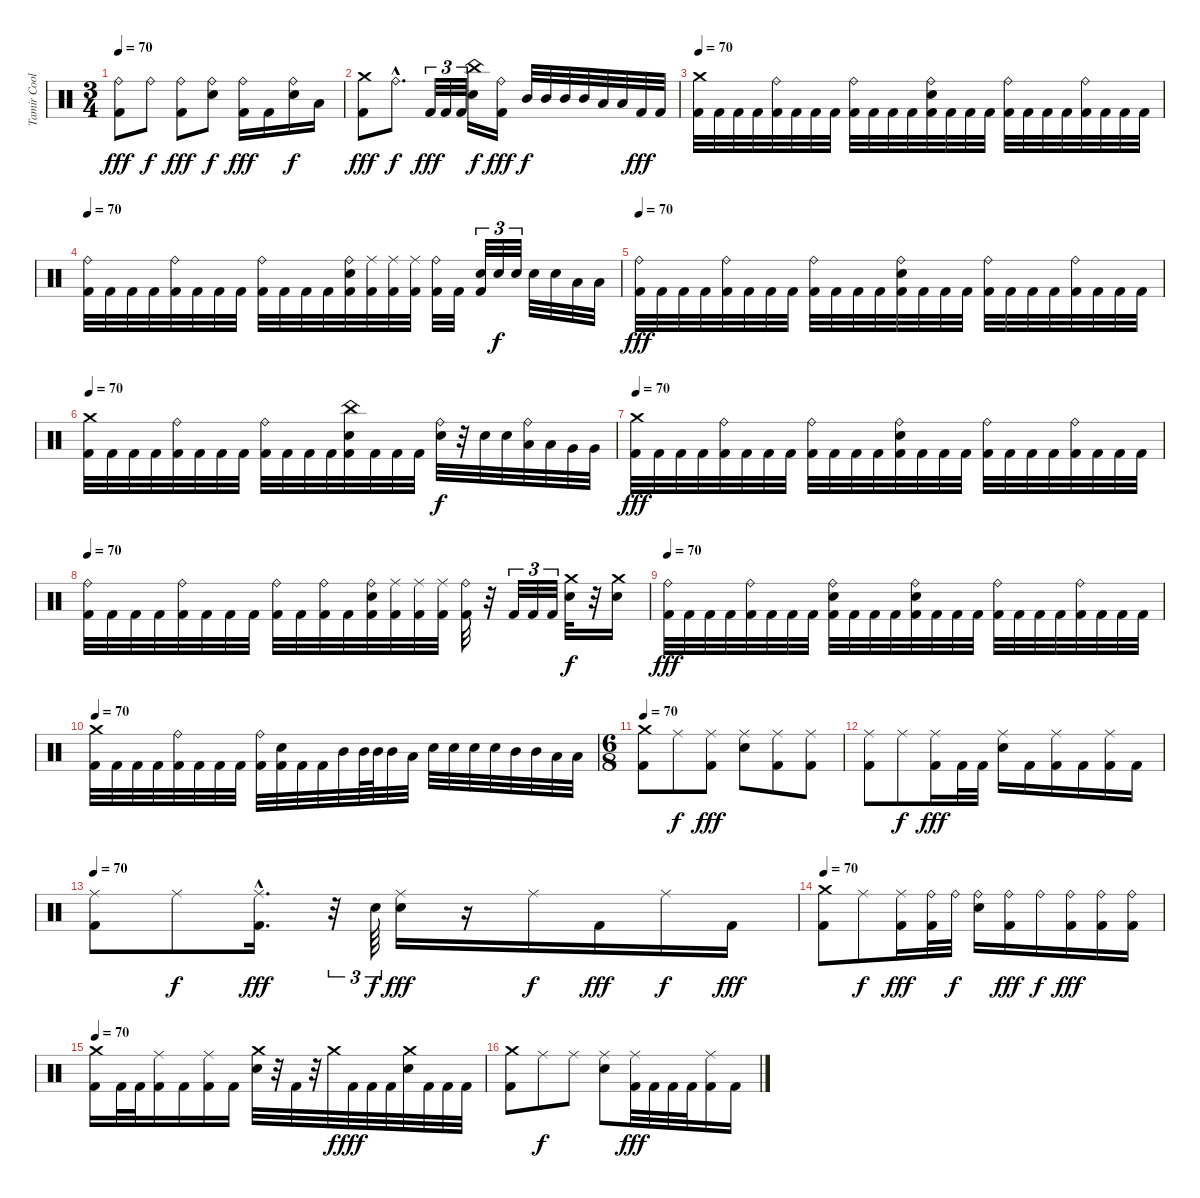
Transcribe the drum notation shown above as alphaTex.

\track ("Tamir Coolberg" "Tamir Cool") {instrument percussion}
\staff {score}
\articulation defaults
\ts (3 4)
\tempo 70
\clef neutral
\ks c
("Ride (bell)" "Kick (hit) 2").8{dy fff} "Ride (bell)".8{dy f} ("Ride (bell)" "Kick (hit) 2").8{dy fff} ("Ride (bell)" "Electric Snare (hit)").8{dy f} ("Ride (bell)" "Kick (hit) 2").16{dy fff} "Kick (hit) 2".16 ("Ride (bell)" "Electric Snare (hit)").16{dy f} "Low Tom (hit)".16 |
("Crash medium (hit)" "Kick (hit) 2").8{dy fff} "Ride (bell)"{hac}.8{d dy f} "Kick (hit) 2".32{tu (3 2) dy fff} "Kick (hit) 2".32{tu (3 2)} "Kick (hit) 2".32{tu (3 2)} ("China (hit)" "Electric Snare (hit)").16{dy f} ("Ride (bell)" "Kick (hit) 2").16{dy fff} "Mid Tom (hit)".32{dy f} "Mid Tom (hit)".32 "Mid Tom (hit)".32 "Mid Tom (hit)".32 "Low Tom (hit)".32 "Low Tom (hit)".32 "Kick (hit) 2".32{dy fff} "Kick (hit) 2".32 |
\tempo 70
("Crash medium (hit)" "Kick (hit) 2").32 "Kick (hit) 2".32 "Kick (hit) 2".32 "Kick (hit) 2".32 ("Ride (bell)" "Kick (hit) 2").32 "Kick (hit) 2".32 "Kick (hit) 2".32 "Kick (hit) 2".32 ("Ride (bell)" "Kick (hit) 2").32 "Kick (hit) 2".32 "Kick (hit) 2".32 "Kick (hit) 2".32 ("Ride (bell)" "Snare (hit) 2" "Kick (hit) 2").32 "Kick (hit) 2".32 "Kick (hit) 2".32 "Kick (hit) 2".32 ("Ride (bell)" "Kick (hit) 2").32 "Kick (hit) 2".32 "Kick (hit) 2".32 "Kick (hit) 2".32 ("Ride (bell)" "Kick (hit) 2").32 "Kick (hit) 2".32 "Kick (hit) 2".32 "Kick (hit) 2".32 |
\tempo 70
("Ride (bell)" "Kick (hit) 2").32 "Kick (hit) 2".32 "Kick (hit) 2".32 "Kick (hit) 2".32 ("Ride (bell)" "Kick (hit) 2").32 "Kick (hit) 2".32 "Kick (hit) 2".32 "Kick (hit) 2".32 ("Ride (bell)" "Kick (hit) 2").32 "Kick (hit) 2".32 "Kick (hit) 2".32 "Kick (hit) 2".32 ("Ride (bell)" "Snare (hit) 2" "Kick (hit) 2").32 ("Ride (middle)" "Kick (hit) 2").32 ("Ride (middle)" "Kick (hit) 2").32 ("Ride (middle)" "Kick (hit) 2").32 ("Ride (bell)" "Kick (hit) 2").32 "Kick (hit) 2".32 ("Snare (hit) 2" "Kick (hit) 2").32{tu (3 2)} "Snare (hit) 2".32{tu (3 2) dy f} "Snare (hit) 2".32{tu (3 2)} "Snare (hit) 2".32 "Snare (hit) 2".32 "Low Tom (hit)".32 "Low Tom (hit)".32 |
\tempo 70
("Ride (bell)" "Kick (hit) 2").32{dy fff} "Kick (hit) 2".32 "Kick (hit) 2".32 "Kick (hit) 2".32 ("Ride (bell)" "Kick (hit) 2").32 "Kick (hit) 2".32 "Kick (hit) 2".32 "Kick (hit) 2".32 ("Ride (bell)" "Kick (hit) 2").32 "Kick (hit) 2".32 "Kick (hit) 2".32 "Kick (hit) 2".32 ("Ride (bell)" "Snare (hit) 2" "Kick (hit) 2").32 "Kick (hit) 2".32 "Kick (hit) 2".32 "Kick (hit) 2".32 ("Ride (bell)" "Kick (hit) 2").32 "Kick (hit) 2".32 "Kick (hit) 2".32 "Kick (hit) 2".32 ("Ride (bell)" "Kick (hit) 2").32 "Kick (hit) 2".32 "Kick (hit) 2".32 "Kick (hit) 2".32 |
\tempo 70
("Crash medium (hit)" "Kick (hit) 2").32 "Kick (hit) 2".32 "Kick (hit) 2".32 "Kick (hit) 2".32 ("Ride (bell)" "Kick (hit) 2").32 "Kick (hit) 2".32 "Kick (hit) 2".32 "Kick (hit) 2".32 ("Ride (bell)" "Kick (hit) 2").32 "Kick (hit) 2".32 "Kick (hit) 2".32 "Kick (hit) 2".32 ("China (hit)" "Snare (hit) 2" "Kick (hit) 2").32 "Kick (hit) 2".32 "Kick (hit) 2".32 "Kick (hit) 2".32 ("Ride (bell)" "Snare (hit) 2").32{dy f} r.32 "Snare (hit) 2".32 "Snare (hit) 2".32 ("Ride (bell)" "Low Tom (hit)").32 "Low Tom (hit)".32 "Very Low Tom (hit)".32 "Very Low Tom (hit)".32 |
\tempo 70
("Crash medium (hit)" "Kick (hit) 2").32{dy fff} "Kick (hit) 2".32 "Kick (hit) 2".32 "Kick (hit) 2".32 ("Ride (bell)" "Kick (hit) 2").32 "Kick (hit) 2".32 "Kick (hit) 2".32 "Kick (hit) 2".32 ("Ride (bell)" "Kick (hit) 2").32 "Kick (hit) 2".32 "Kick (hit) 2".32 "Kick (hit) 2".32 ("Ride (bell)" "Snare (hit) 2" "Kick (hit) 2").32 "Kick (hit) 2".32 "Kick (hit) 2".32 "Kick (hit) 2".32 ("Ride (bell)" "Kick (hit) 2").32 "Kick (hit) 2".32 "Kick (hit) 2".32 "Kick (hit) 2".32 ("Ride (bell)" "Kick (hit) 2").32 "Kick (hit) 2".32 "Kick (hit) 2".32 "Kick (hit) 2".32 |
\tempo 70
("Ride (bell)" "Kick (hit) 2").32 "Kick (hit) 2".32 "Kick (hit) 2".32 "Kick (hit) 2".32 ("Ride (bell)" "Kick (hit) 2").32 "Kick (hit) 2".32 "Kick (hit) 2".32 "Kick (hit) 2".32 ("Ride (bell)" "Kick (hit) 2").32 "Kick (hit) 2".32 ("Ride (bell)" "Kick (hit) 2").32 "Kick (hit) 2".32 ("Ride (bell)" "Snare (hit) 2" "Kick (hit) 2").32 ("Ride (middle)" "Kick (hit) 2").32 ("Ride (middle)" "Kick (hit) 2").32 ("Ride (middle)" "Kick (hit) 2").32 ("Ride (bell)" "Kick (hit) 2").32 r.32 "Kick (hit) 2".32{tu (3 2)} "Kick (hit) 2".32{tu (3 2)} "Kick (hit) 2".32{tu (3 2)} ("Crash medium (hit)" "Snare (hit) 2").32{dy f} r.32 ("Crash medium (hit)" "Snare (hit) 2").16 |
\tempo 70
("Ride (bell)" "Kick (hit) 2").32{dy fff} "Kick (hit) 2".32 "Kick (hit) 2".32 "Kick (hit) 2".32 ("Ride (bell)" "Kick (hit) 2").32 "Kick (hit) 2".32 "Kick (hit) 2".32 "Kick (hit) 2".32 ("Ride (bell)" "Snare (hit) 2" "Kick (hit) 2").32 "Kick (hit) 2".32 "Kick (hit) 2".32 "Kick (hit) 2".32 ("Ride (bell)" "Snare (hit) 2" "Kick (hit) 2").32 "Kick (hit) 2".32 "Kick (hit) 2".32 "Kick (hit) 2".32 ("Ride (bell)" "Kick (hit) 2").32 "Kick (hit) 2".32 "Kick (hit) 2".32 "Kick (hit) 2".32 ("Ride (bell)" "Kick (hit) 2").32 "Kick (hit) 2".32 "Kick (hit) 2".32 "Kick (hit) 2".32 |
\tempo 70
("Crash medium (hit)" "Kick (hit) 2").32 "Kick (hit) 2".32 "Kick (hit) 2".32 "Kick (hit) 2".32 ("Ride (bell)" "Kick (hit) 2").32 "Kick (hit) 2".32 "Kick (hit) 2".32 "Kick (hit) 2".32 ("Ride (bell)" "Kick (hit) 2").32 ("Snare (hit) 2" "Kick (hit) 2").32 "Kick (hit) 2".32 "Kick (hit) 2".32 "Mid Tom (hit)".32 "Mid Tom (hit)".64 "Mid Tom (hit)".64 "Mid Tom (hit)".32 "Low Tom (hit)".32 "Snare (hit) 2".32 "Snare (hit) 2".32 "Snare (hit) 2".32 "Snare (hit) 2".32 "Mid Tom (hit)".32 "Mid Tom (hit)".32 "Low Tom (hit)".32 "Low Tom (hit)".32 |
\ts (6 8)
\tempo 70
("Crash medium (hit)" "Kick (hit) 2").8 "Ride (middle)".8{dy f} ("Ride (middle)" "Kick (hit) 2").8{dy fff} ("Ride (middle)" "Electric Snare (hit)").8 ("Ride (middle)" "Kick (hit) 2").8 ("Ride (middle)" "Kick (hit) 2").8 |
("Ride (middle)" "Kick (hit) 2").8 "Ride (middle)".8{dy f} ("Ride (middle)" "Kick (hit) 2").16{dy fff} "Kick (hit) 2".32 "Kick (hit) 2".32 ("Ride (middle)" "Electric Snare (hit)").16 "Kick (hit) 2".16 ("Ride (middle)" "Kick (hit) 2").16 "Kick (hit) 2".16 ("Ride (middle)" "Kick (hit) 2").16 "Kick (hit) 2".16 |
\tempo 70
("Ride (middle)" "Kick (hit) 2").8 "Ride (middle)".8{dy f} ("Ride (middle)"{hac} "Kick (hit) 2"{hac}).16{d dy fff} r.32{tu (3 2)} "Electric Snare (hit)".64{tu (3 2) dy f} ("Ride (middle)" "Electric Snare (hit)").16{dy fff} r.16 "Ride (middle)".16{dy f} "Kick (hit) 2".16{dy fff} "Ride (middle)".16{dy f} "Kick (hit) 2".16{dy fff} |
\tempo 70
("Crash medium (hit)" "Kick (hit) 2").8 "Ride (middle)".8{dy f} ("Ride (middle)" "Kick (hit) 2").16{dy fff} ("Ride (bell)" "Kick (hit) 2").32 "Ride (bell)".32{dy f} ("Ride (bell)" "Electric Snare (hit)").16 ("Ride (bell)" "Kick (hit) 2").16{dy fff} "Ride (bell)".16{dy f} ("Ride (bell)" "Kick (hit) 2").16{dy fff} ("Ride (bell)" "Kick (hit) 2").16 ("Ride (bell)" "Kick (hit) 2").16 |
\tempo 70
("Crash medium (hit)" "Kick (hit) 2").16 "Kick (hit) 2".32 "Kick (hit) 2".32 ("Ride (middle)" "Kick (hit) 2").16 "Kick (hit) 2".16 ("Ride (middle)" "Kick (hit) 2").16 "Kick (hit) 2".16 ("Crash medium (hit)" "Electric Snare (hit)").32 r.32 "Kick (hit) 2".32 r.32 "Crash medium (hit)".32{dy f} "Kick (hit) 2".32{dy fff} "Kick (hit) 2".32 "Kick (hit) 2".32 ("Crash medium (hit)" "Electric Snare (hit)").32 "Kick (hit) 2".32 "Kick (hit) 2".32 "Kick (hit) 2".32 |
("Crash medium (hit)" "Kick (hit) 2").8 "Ride (middle)".8{dy f} "Ride (middle)".8 ("Ride (middle)" "Electric Snare (hit)").8 ("Ride (middle)" "Kick (hit) 2").32{dy fff} "Kick (hit) 2".32 "Kick (hit) 2".32 "Kick (hit) 2".32 ("Ride (middle)" "Kick (hit) 2").16 "Kick (hit) 2".16
